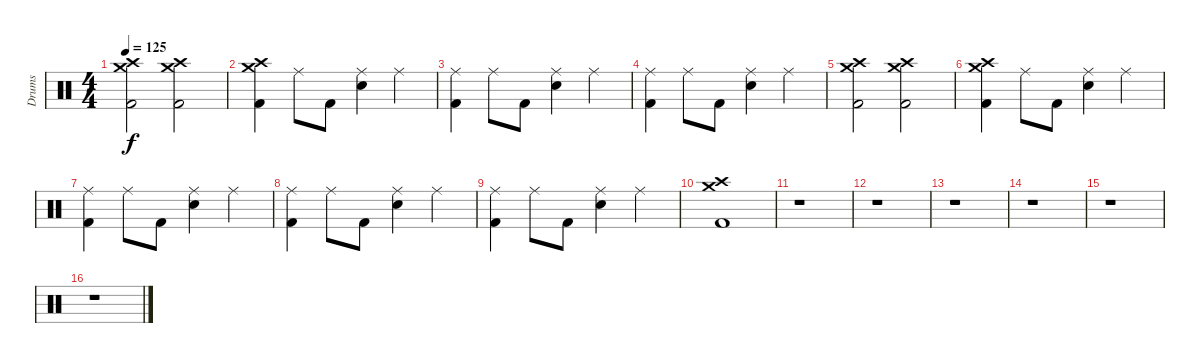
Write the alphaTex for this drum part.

\track ("Drums" "Drums") {instrument percussion}
\staff {score}
\articulation defaults
\ts (4 4)
\tempo 125
\clef neutral
\ks c
("Crash medium (hit)" "Crash high (hit)" "Kick (hit) 2").2{dy f} ("Crash high (hit)" "Crash medium (hit)" "Kick (hit) 2").2 |
("Crash medium (hit)" "Crash high (hit)" "Kick (hit) 2").4 "Ride (middle)".8 "Kick (hit) 2".8 ("Ride (middle)" "Electric Snare (hit)").4 "Ride (middle)".4 |
("Ride (middle)" "Kick (hit) 2").4 "Ride (middle)".8 "Kick (hit) 2".8 ("Ride (middle)" "Electric Snare (hit)").4 "Ride (middle)".4 |
("Ride (middle)" "Kick (hit) 2").4 "Ride (middle)".8 "Kick (hit) 2".8 ("Ride (middle)" "Electric Snare (hit)").4 "Ride (middle)".4 |
("Crash medium (hit)" "Crash high (hit)" "Kick (hit) 2").2 ("Crash high (hit)" "Crash medium (hit)" "Kick (hit) 2").2 |
("Crash medium (hit)" "Crash high (hit)" "Kick (hit) 2").4 "Ride (middle)".8 "Kick (hit) 2".8 ("Ride (middle)" "Electric Snare (hit)").4 "Ride (middle)".4 |
("Ride (middle)" "Kick (hit) 2").4 "Ride (middle)".8 "Kick (hit) 2".8 ("Ride (middle)" "Electric Snare (hit)").4 "Ride (middle)".4 |
("Ride (middle)" "Kick (hit) 2").4 "Ride (middle)".8 "Kick (hit) 2".8 ("Ride (middle)" "Electric Snare (hit)").4 "Ride (middle)".4 |
("Ride (middle)" "Kick (hit) 2").4 "Ride (middle)".8 "Kick (hit) 2".8 ("Ride (middle)" "Electric Snare (hit)").4 "Ride (middle)".4 |
("Crash high (hit)" "Crash medium (hit)" "Kick (hit) 2").1 |
r.1 |
r.1 |
r.1 |
r.1 |
r.1 |
r.1
